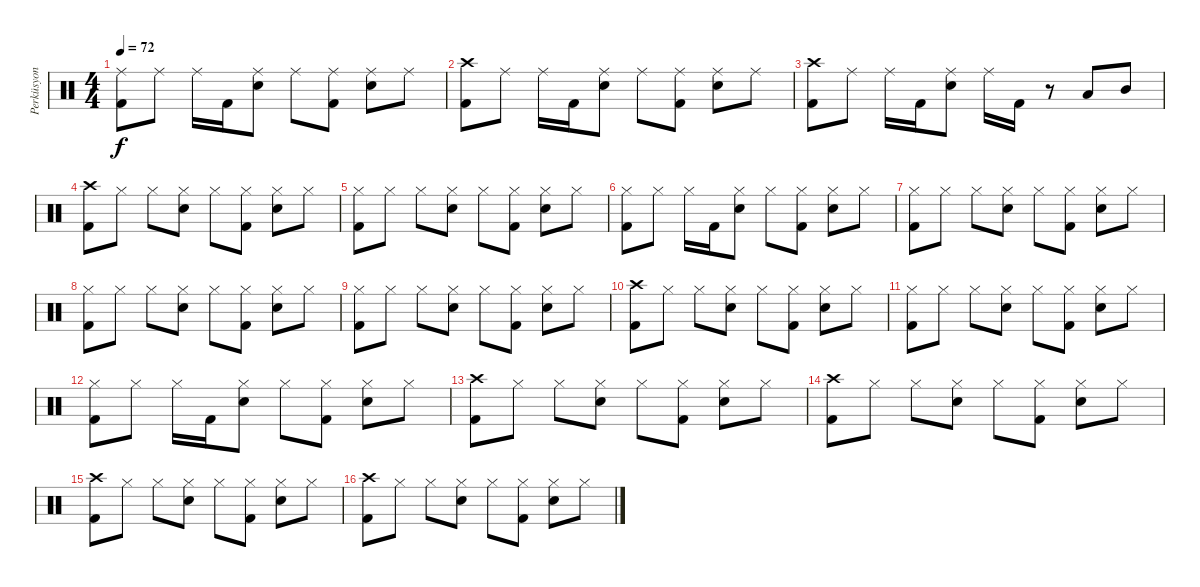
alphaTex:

\track ("Perküsyon" "Perküsyon") {instrument percussion}
\staff {score}
\articulation defaults
\ts (4 4)
\tempo 72
\clef neutral
\ks c
("Ride (middle)" "Kick (hit) 2").8{dy f} "Ride (middle)".8 "Ride (middle)".16 "Kick (hit) 2".16 ("Ride (middle)" "Electric Snare (hit)").8 "Ride (middle)".8 ("Ride (middle)" "Kick (hit) 2").8 ("Ride (middle)" "Electric Snare (hit)").8 "Ride (middle)".8 |
("Crash high (hit)" "Kick (hit) 2").8 "Ride (middle)".8 "Ride (middle)".16 "Kick (hit) 2".16 ("Ride (middle)" "Electric Snare (hit)").8 "Ride (middle)".8 ("Ride (middle)" "Kick (hit) 2").8 ("Ride (middle)" "Electric Snare (hit)").8 "Ride (middle)".8 |
("Crash high (hit)" "Kick (hit) 2").8 "Ride (middle)".8 "Ride (middle)".16 "Kick (hit) 2".16 ("Ride (middle)" "Electric Snare (hit)").8 "Ride (middle)".16 "Kick (hit) 2".16 r.8 "Low Tom (hit)".8 "Mid Tom (hit)".8 |
("Crash high (hit)" "Kick (hit) 2").8 "Hi-Hat (closed)".8 "Hi-Hat (closed)".8 ("Hi-Hat (closed)" "Electric Snare (hit)").8 "Hi-Hat (closed)".8 ("Hi-Hat (closed)" "Kick (hit) 2").8 ("Hi-Hat (closed)" "Electric Snare (hit)").8 "Hi-Hat (closed)".8 |
("Hi-Hat (closed)" "Kick (hit) 2").8 "Hi-Hat (closed)".8 "Hi-Hat (closed)".8 ("Hi-Hat (closed)" "Electric Snare (hit)").8 "Hi-Hat (closed)".8 ("Hi-Hat (closed)" "Kick (hit) 2").8 ("Hi-Hat (closed)" "Electric Snare (hit)").8 "Hi-Hat (closed)".8 |
("Hi-Hat (closed)" "Kick (hit) 2").8 "Hi-Hat (closed)".8 "Hi-Hat (closed)".16 "Kick (hit) 2".16 ("Hi-Hat (closed)" "Electric Snare (hit)").8 "Hi-Hat (closed)".8 ("Hi-Hat (closed)" "Kick (hit) 2").8 ("Hi-Hat (closed)" "Electric Snare (hit)").8 "Hi-Hat (closed)".8 |
("Hi-Hat (closed)" "Kick (hit) 2").8 "Hi-Hat (closed)".8 "Hi-Hat (closed)".8 ("Hi-Hat (closed)" "Electric Snare (hit)").8 "Hi-Hat (closed)".8 ("Hi-Hat (closed)" "Kick (hit) 2").8 ("Hi-Hat (closed)" "Electric Snare (hit)").8 "Hi-Hat (closed)".8 |
("Hi-Hat (closed)" "Kick (hit) 2").8 "Hi-Hat (closed)".8 "Hi-Hat (closed)".8 ("Hi-Hat (closed)" "Electric Snare (hit)").8 "Hi-Hat (closed)".8 ("Hi-Hat (closed)" "Kick (hit) 2").8 ("Hi-Hat (closed)" "Electric Snare (hit)").8 "Hi-Hat (closed)".8 |
("Hi-Hat (closed)" "Kick (hit) 2").8 "Hi-Hat (closed)".8 "Hi-Hat (closed)".8 ("Hi-Hat (closed)" "Electric Snare (hit)").8 "Hi-Hat (closed)".8 ("Hi-Hat (closed)" "Kick (hit) 2").8 ("Hi-Hat (closed)" "Electric Snare (hit)").8 "Hi-Hat (closed)".8 |
("Crash high (hit)" "Kick (hit) 2").8 "Hi-Hat (closed)".8 "Hi-Hat (closed)".8 ("Hi-Hat (closed)" "Electric Snare (hit)").8 "Hi-Hat (closed)".8 ("Hi-Hat (closed)" "Kick (hit) 2").8 ("Hi-Hat (closed)" "Electric Snare (hit)").8 "Hi-Hat (closed)".8 |
("Hi-Hat (closed)" "Kick (hit) 2").8 "Hi-Hat (closed)".8 "Hi-Hat (closed)".8 ("Hi-Hat (closed)" "Electric Snare (hit)").8 "Hi-Hat (closed)".8 ("Hi-Hat (closed)" "Kick (hit) 2").8 ("Hi-Hat (closed)" "Electric Snare (hit)").8 "Hi-Hat (closed)".8 |
("Hi-Hat (closed)" "Kick (hit) 2").8 "Hi-Hat (closed)".8 "Hi-Hat (closed)".16 "Kick (hit) 2".16 ("Hi-Hat (closed)" "Electric Snare (hit)").8 "Hi-Hat (closed)".8 ("Hi-Hat (closed)" "Kick (hit) 2").8 ("Hi-Hat (closed)" "Electric Snare (hit)").8 "Hi-Hat (closed)".8 |
("Crash high (hit)" "Kick (hit) 2").8 "Hi-Hat (closed)".8 "Hi-Hat (closed)".8 ("Hi-Hat (closed)" "Electric Snare (hit)").8 "Hi-Hat (closed)".8 ("Hi-Hat (closed)" "Kick (hit) 2").8 ("Hi-Hat (closed)" "Electric Snare (hit)").8 "Hi-Hat (closed)".8 |
("Crash high (hit)" "Kick (hit) 2").8 "Hi-Hat (closed)".8 "Hi-Hat (closed)".8 ("Hi-Hat (closed)" "Electric Snare (hit)").8 "Hi-Hat (closed)".8 ("Hi-Hat (closed)" "Kick (hit) 2").8 ("Hi-Hat (closed)" "Electric Snare (hit)").8 "Hi-Hat (closed)".8 |
("Crash high (hit)" "Kick (hit) 2").8 "Hi-Hat (closed)".8 "Hi-Hat (closed)".8 ("Hi-Hat (closed)" "Electric Snare (hit)").8 "Hi-Hat (closed)".8 ("Hi-Hat (closed)" "Kick (hit) 2").8 ("Hi-Hat (closed)" "Electric Snare (hit)").8 "Hi-Hat (closed)".8 |
("Crash high (hit)" "Kick (hit) 2").8 "Hi-Hat (closed)".8 "Hi-Hat (closed)".8 ("Hi-Hat (closed)" "Electric Snare (hit)").8 "Hi-Hat (closed)".8 ("Hi-Hat (closed)" "Kick (hit) 2").8 ("Hi-Hat (closed)" "Electric Snare (hit)").8 "Hi-Hat (closed)".8
